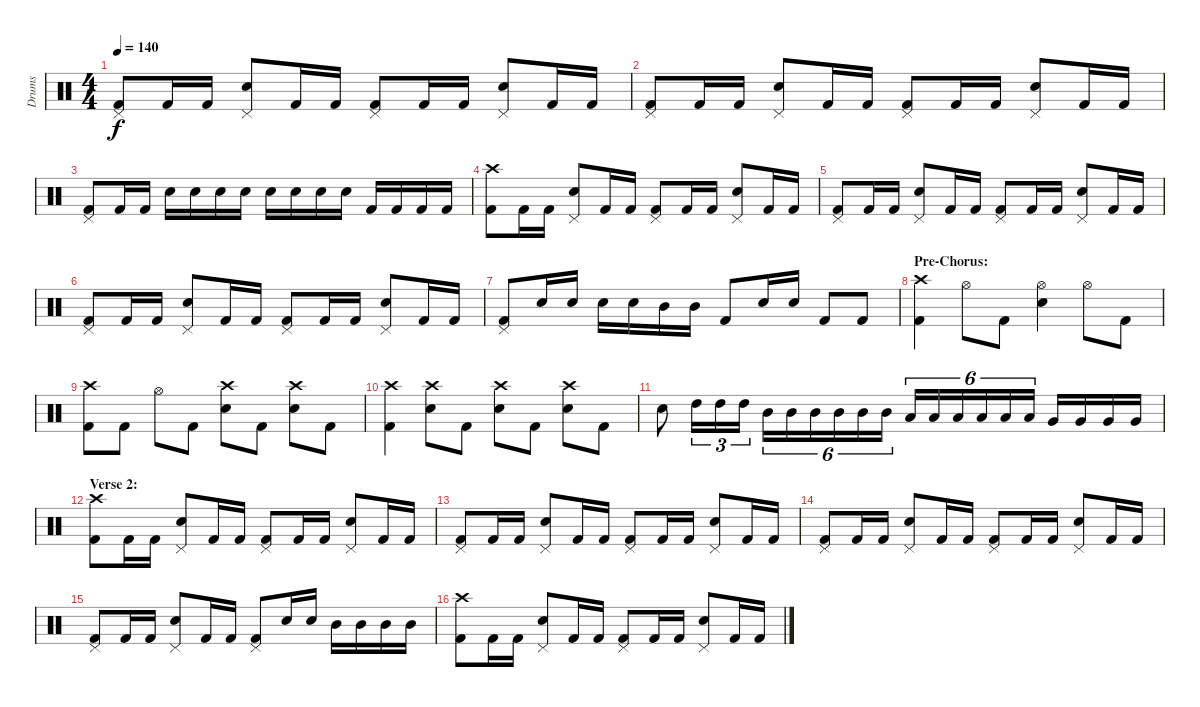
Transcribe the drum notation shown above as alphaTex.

\track ("Drums" "Drums") {instrument percussion}
\staff {score}
\articulation defaults
\ts (4 4)
\tempo 140
\clef neutral
\ks c
("Pedal Hi-Hat (hit)" "Kick (hit) 2").8{dy f} "Kick (hit) 2".16 "Kick (hit) 2".16 ("Pedal Hi-Hat (hit)" "Electric Snare (hit)").8 "Kick (hit) 2".16 "Kick (hit) 2".16 ("Pedal Hi-Hat (hit)" "Kick (hit) 2").8 "Kick (hit) 2".16 "Kick (hit) 2".16 ("Pedal Hi-Hat (hit)" "Electric Snare (hit)").8 "Kick (hit) 2".16 "Kick (hit) 2".16 |
("Pedal Hi-Hat (hit)" "Kick (hit) 2").8 "Kick (hit) 2".16 "Kick (hit) 2".16 ("Pedal Hi-Hat (hit)" "Electric Snare (hit)").8 "Kick (hit) 2".16 "Kick (hit) 2".16 ("Pedal Hi-Hat (hit)" "Kick (hit) 2").8 "Kick (hit) 2".16 "Kick (hit) 2".16 ("Pedal Hi-Hat (hit)" "Electric Snare (hit)").8 "Kick (hit) 2".16 "Kick (hit) 2".16 |
("Pedal Hi-Hat (hit)" "Kick (hit) 2").8 "Kick (hit) 2".16 "Kick (hit) 2".16 "Electric Snare (hit)".16 "Electric Snare (hit)".16 "Electric Snare (hit)".16 "Electric Snare (hit)".16 "Electric Snare (hit)".16 "Electric Snare (hit)".16 "Electric Snare (hit)".16 "Electric Snare (hit)".16 "Kick (hit) 2".16 "Kick (hit) 2".16 "Kick (hit) 2".16 "Kick (hit) 2".16 |
("Crash high (hit)" "Kick (hit) 2").8 "Kick (hit) 2".16 "Kick (hit) 2".16 ("Pedal Hi-Hat (hit)" "Electric Snare (hit)").8 "Kick (hit) 2".16 "Kick (hit) 2".16 ("Pedal Hi-Hat (hit)" "Kick (hit) 2").8 "Kick (hit) 2".16 "Kick (hit) 2".16 ("Pedal Hi-Hat (hit)" "Electric Snare (hit)").8 "Kick (hit) 2".16 "Kick (hit) 2".16 |
("Pedal Hi-Hat (hit)" "Kick (hit) 2").8 "Kick (hit) 2".16 "Kick (hit) 2".16 ("Pedal Hi-Hat (hit)" "Electric Snare (hit)").8 "Kick (hit) 2".16 "Kick (hit) 2".16 ("Pedal Hi-Hat (hit)" "Kick (hit) 2").8 "Kick (hit) 2".16 "Kick (hit) 2".16 ("Pedal Hi-Hat (hit)" "Electric Snare (hit)").8 "Kick (hit) 2".16 "Kick (hit) 2".16 |
("Pedal Hi-Hat (hit)" "Kick (hit) 2").8 "Kick (hit) 2".16 "Kick (hit) 2".16 ("Pedal Hi-Hat (hit)" "Electric Snare (hit)").8 "Kick (hit) 2".16 "Kick (hit) 2".16 ("Pedal Hi-Hat (hit)" "Kick (hit) 2").8 "Kick (hit) 2".16 "Kick (hit) 2".16 ("Pedal Hi-Hat (hit)" "Electric Snare (hit)").8 "Kick (hit) 2".16 "Kick (hit) 2".16 |
("Pedal Hi-Hat (hit)" "Kick (hit) 2").8 "Electric Snare (hit)".16 "Electric Snare (hit)".16 "Electric Snare (hit)".16 "Electric Snare (hit)".16 "Mid Tom (hit)".16 "Mid Tom (hit)".16 "Kick (hit) 2".8 "Electric Snare (hit)".16 "Electric Snare (hit)".16 "Kick (hit) 2".8 "Kick (hit) 2".8 |
\section ("" "Pre-Chorus:")
("Crash high (hit)" "Kick (hit) 2").4 "Hi-Hat (open)".8 "Kick (hit) 2".8 ("Hi-Hat (open)" "Electric Snare (hit)").4 "Hi-Hat (open)".8 "Kick (hit) 2".8 |
("Crash high (hit)" "Kick (hit) 2").8 "Kick (hit) 2".8 "Hi-Hat (open)".8 "Kick (hit) 2".8 ("Crash high (hit)" "Electric Snare (hit)").8 "Kick (hit) 2".8 ("Crash high (hit)" "Electric Snare (hit)").8 "Kick (hit) 2".8 |
("Crash high (hit)" "Kick (hit) 2").4 ("Crash high (hit)" "Electric Snare (hit)").8 "Kick (hit) 2".8 ("Crash high (hit)" "Electric Snare (hit)").8 "Kick (hit) 2".8 ("Crash high (hit)" "Electric Snare (hit)").8 "Kick (hit) 2".8 |
"Electric Snare (hit)".8 "High Tom (hit)".16{tu (3 2)} "High Tom (hit)".16{tu (3 2)} "High Tom (hit)".16{tu (3 2)} "Mid Tom (hit)".16{tu (6 4)} "Mid Tom (hit)".16{tu (6 4)} "Mid Tom (hit)".16{tu (6 4)} "Mid Tom (hit)".16{tu (6 4)} "Mid Tom (hit)".16{tu (6 4)} "Mid Tom (hit)".16{tu (6 4)} "Low Tom (hit)".16{tu (6 4)} "Low Tom (hit)".16{tu (6 4)} "Low Tom (hit)".16{tu (6 4)} "Low Tom (hit)".16{tu (6 4)} "Low Tom (hit)".16{tu (6 4)} "Low Tom (hit)".16{tu (6 4)} "Very Low Tom (hit)".16 "Very Low Tom (hit)".16 "Very Low Tom (hit)".16 "Very Low Tom (hit)".16 |
\section ("" "Verse 2:")
("Crash high (hit)" "Kick (hit) 2").8 "Kick (hit) 2".16 "Kick (hit) 2".16 ("Pedal Hi-Hat (hit)" "Electric Snare (hit)").8 "Kick (hit) 2".16 "Kick (hit) 2".16 ("Pedal Hi-Hat (hit)" "Kick (hit) 2").8 "Kick (hit) 2".16 "Kick (hit) 2".16 ("Pedal Hi-Hat (hit)" "Electric Snare (hit)").8 "Kick (hit) 2".16 "Kick (hit) 2".16 |
("Pedal Hi-Hat (hit)" "Kick (hit) 2").8 "Kick (hit) 2".16 "Kick (hit) 2".16 ("Pedal Hi-Hat (hit)" "Electric Snare (hit)").8 "Kick (hit) 2".16 "Kick (hit) 2".16 ("Pedal Hi-Hat (hit)" "Kick (hit) 2").8 "Kick (hit) 2".16 "Kick (hit) 2".16 ("Pedal Hi-Hat (hit)" "Electric Snare (hit)").8 "Kick (hit) 2".16 "Kick (hit) 2".16 |
("Pedal Hi-Hat (hit)" "Kick (hit) 2").8 "Kick (hit) 2".16 "Kick (hit) 2".16 ("Pedal Hi-Hat (hit)" "Electric Snare (hit)").8 "Kick (hit) 2".16 "Kick (hit) 2".16 ("Pedal Hi-Hat (hit)" "Kick (hit) 2").8 "Kick (hit) 2".16 "Kick (hit) 2".16 ("Pedal Hi-Hat (hit)" "Electric Snare (hit)").8 "Kick (hit) 2".16 "Kick (hit) 2".16 |
("Pedal Hi-Hat (hit)" "Kick (hit) 2").8 "Kick (hit) 2".16 "Kick (hit) 2".16 ("Pedal Hi-Hat (hit)" "Electric Snare (hit)").8 "Kick (hit) 2".16 "Kick (hit) 2".16 ("Pedal Hi-Hat (hit)" "Kick (hit) 2").8 "Electric Snare (hit)".16 "Electric Snare (hit)".16 "Mid Tom (hit)".16 "Mid Tom (hit)".16 "Mid Tom (hit)".16 "Mid Tom (hit)".16 |
("Crash high (hit)" "Kick (hit) 2").8 "Kick (hit) 2".16 "Kick (hit) 2".16 ("Pedal Hi-Hat (hit)" "Electric Snare (hit)").8 "Kick (hit) 2".16 "Kick (hit) 2".16 ("Pedal Hi-Hat (hit)" "Kick (hit) 2").8 "Kick (hit) 2".16 "Kick (hit) 2".16 ("Pedal Hi-Hat (hit)" "Electric Snare (hit)").8 "Kick (hit) 2".16 "Kick (hit) 2".16
